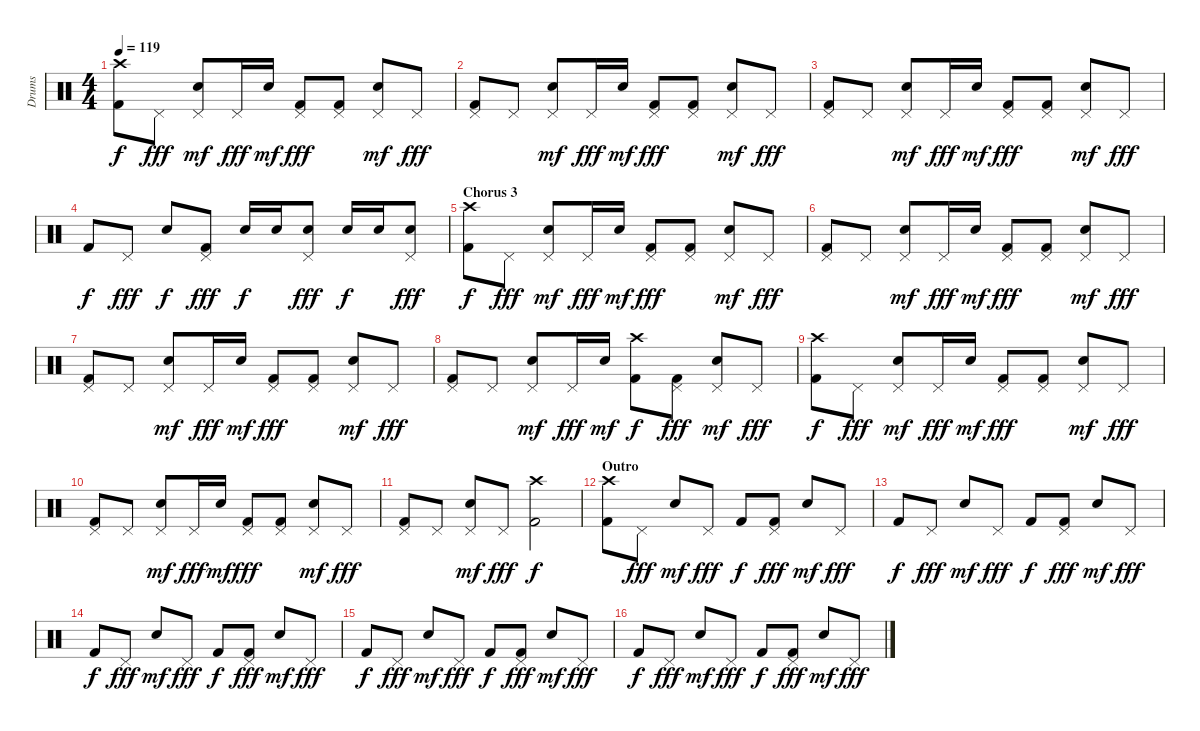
\track ("Drums" "Drums") {instrument percussion}
\staff {score}
\articulation defaults
\ts (4 4)
\tempo 119
\clef neutral
\ks c
("Crash high (hit)" "Kick (hit) 2").8{dy f} "Pedal Hi-Hat (hit)".8{dy fff} ("Pedal Hi-Hat (hit)" "Electric Snare (hit)").8{dy mf} "Pedal Hi-Hat (hit)".16{dy fff} "Electric Snare (hit)".16{dy mf} ("Pedal Hi-Hat (hit)" "Kick (hit) 2").8{dy fff} ("Pedal Hi-Hat (hit)" "Kick (hit) 2").8 ("Pedal Hi-Hat (hit)" "Electric Snare (hit)").8{dy mf} "Pedal Hi-Hat (hit)".8{dy fff} |
("Pedal Hi-Hat (hit)" "Kick (hit) 2").8 "Pedal Hi-Hat (hit)".8 ("Pedal Hi-Hat (hit)" "Electric Snare (hit)").8{dy mf} "Pedal Hi-Hat (hit)".16{dy fff} "Electric Snare (hit)".16{dy mf} ("Pedal Hi-Hat (hit)" "Kick (hit) 2").8{dy fff} ("Pedal Hi-Hat (hit)" "Kick (hit) 2").8 ("Pedal Hi-Hat (hit)" "Electric Snare (hit)").8{dy mf} "Pedal Hi-Hat (hit)".8{dy fff} |
("Pedal Hi-Hat (hit)" "Kick (hit) 2").8 "Pedal Hi-Hat (hit)".8 ("Pedal Hi-Hat (hit)" "Electric Snare (hit)").8{dy mf} "Pedal Hi-Hat (hit)".16{dy fff} "Electric Snare (hit)".16{dy mf} ("Pedal Hi-Hat (hit)" "Kick (hit) 2").8{dy fff} ("Pedal Hi-Hat (hit)" "Kick (hit) 2").8 ("Pedal Hi-Hat (hit)" "Electric Snare (hit)").8{dy mf} "Pedal Hi-Hat (hit)".8{dy fff} |
"Kick (hit) 2".8{dy f} "Pedal Hi-Hat (hit)".8{dy fff} "Electric Snare (hit)".8{dy f} ("Pedal Hi-Hat (hit)" "Kick (hit) 2").8{dy fff} "Electric Snare (hit)".16{dy f} "Electric Snare (hit)".16 ("Pedal Hi-Hat (hit)" "Electric Snare (hit)").8{dy fff} "Electric Snare (hit)".16{dy f} "Electric Snare (hit)".16 ("Pedal Hi-Hat (hit)" "Electric Snare (hit)").8{dy fff} |
\section ("" "Chorus 3")
("Crash high (hit)" "Kick (hit) 2").8{dy f} "Pedal Hi-Hat (hit)".8{dy fff} ("Pedal Hi-Hat (hit)" "Electric Snare (hit)").8{dy mf} "Pedal Hi-Hat (hit)".16{dy fff} "Electric Snare (hit)".16{dy mf} ("Pedal Hi-Hat (hit)" "Kick (hit) 2").8{dy fff} ("Pedal Hi-Hat (hit)" "Kick (hit) 2").8 ("Pedal Hi-Hat (hit)" "Electric Snare (hit)").8{dy mf} "Pedal Hi-Hat (hit)".8{dy fff} |
("Pedal Hi-Hat (hit)" "Kick (hit) 2").8 "Pedal Hi-Hat (hit)".8 ("Pedal Hi-Hat (hit)" "Electric Snare (hit)").8{dy mf} "Pedal Hi-Hat (hit)".16{dy fff} "Electric Snare (hit)".16{dy mf} ("Pedal Hi-Hat (hit)" "Kick (hit) 2").8{dy fff} ("Pedal Hi-Hat (hit)" "Kick (hit) 2").8 ("Pedal Hi-Hat (hit)" "Electric Snare (hit)").8{dy mf} "Pedal Hi-Hat (hit)".8{dy fff} |
("Pedal Hi-Hat (hit)" "Kick (hit) 2").8 "Pedal Hi-Hat (hit)".8 ("Pedal Hi-Hat (hit)" "Electric Snare (hit)").8{dy mf} "Pedal Hi-Hat (hit)".16{dy fff} "Electric Snare (hit)".16{dy mf} ("Pedal Hi-Hat (hit)" "Kick (hit) 2").8{dy fff} ("Pedal Hi-Hat (hit)" "Kick (hit) 2").8 ("Pedal Hi-Hat (hit)" "Electric Snare (hit)").8{dy mf} "Pedal Hi-Hat (hit)".8{dy fff} |
("Pedal Hi-Hat (hit)" "Kick (hit) 2").8 "Pedal Hi-Hat (hit)".8 ("Pedal Hi-Hat (hit)" "Electric Snare (hit)").8{dy mf} "Pedal Hi-Hat (hit)".16{dy fff} "Electric Snare (hit)".16{dy mf} ("Crash high (hit)" "Kick (hit) 2").8{dy f} ("Pedal Hi-Hat (hit)" "Kick (hit) 2").8{dy fff} ("Pedal Hi-Hat (hit)" "Electric Snare (hit)").8{dy mf} "Pedal Hi-Hat (hit)".8{dy fff} |
("Crash high (hit)" "Kick (hit) 2").8{dy f} "Pedal Hi-Hat (hit)".8{dy fff} ("Pedal Hi-Hat (hit)" "Electric Snare (hit)").8{dy mf} "Pedal Hi-Hat (hit)".16{dy fff} "Electric Snare (hit)".16{dy mf} ("Pedal Hi-Hat (hit)" "Kick (hit) 2").8{dy fff} ("Pedal Hi-Hat (hit)" "Kick (hit) 2").8 ("Pedal Hi-Hat (hit)" "Electric Snare (hit)").8{dy mf} "Pedal Hi-Hat (hit)".8{dy fff} |
("Pedal Hi-Hat (hit)" "Kick (hit) 2").8 "Pedal Hi-Hat (hit)".8 ("Pedal Hi-Hat (hit)" "Electric Snare (hit)").8{dy mf} "Pedal Hi-Hat (hit)".16{dy fff} "Electric Snare (hit)".16{dy mf} ("Pedal Hi-Hat (hit)" "Kick (hit) 2").8{dy fff} ("Pedal Hi-Hat (hit)" "Kick (hit) 2").8 ("Pedal Hi-Hat (hit)" "Electric Snare (hit)").8{dy mf} "Pedal Hi-Hat (hit)".8{dy fff} |
("Pedal Hi-Hat (hit)" "Kick (hit) 2").8 "Pedal Hi-Hat (hit)".8 ("Pedal Hi-Hat (hit)" "Electric Snare (hit)").8{dy mf} "Pedal Hi-Hat (hit)".8{dy fff} ("Crash high (hit)" "Kick (hit) 2").2{dy f} |
\section ("" "Outro")
("Crash high (hit)" "Kick (hit) 2").8 "Pedal Hi-Hat (hit)".8{dy fff} "Electric Snare (hit)".8{dy mf} "Pedal Hi-Hat (hit)".8{dy fff} "Kick (hit) 2".8{dy f} ("Pedal Hi-Hat (hit)" "Kick (hit) 2").8{dy fff} "Electric Snare (hit)".8{dy mf} "Pedal Hi-Hat (hit)".8{dy fff} |
"Kick (hit) 2".8{dy f} "Pedal Hi-Hat (hit)".8{dy fff} "Electric Snare (hit)".8{dy mf} "Pedal Hi-Hat (hit)".8{dy fff} "Kick (hit) 2".8{dy f} ("Pedal Hi-Hat (hit)" "Kick (hit) 2").8{dy fff} "Electric Snare (hit)".8{dy mf} "Pedal Hi-Hat (hit)".8{dy fff} |
"Kick (hit) 2".8{dy f} "Pedal Hi-Hat (hit)".8{dy fff} "Electric Snare (hit)".8{dy mf} "Pedal Hi-Hat (hit)".8{dy fff} "Kick (hit) 2".8{dy f} ("Pedal Hi-Hat (hit)" "Kick (hit) 2").8{dy fff} "Electric Snare (hit)".8{dy mf} "Pedal Hi-Hat (hit)".8{dy fff} |
"Kick (hit) 2".8{dy f} "Pedal Hi-Hat (hit)".8{dy fff} "Electric Snare (hit)".8{dy mf} "Pedal Hi-Hat (hit)".8{dy fff} "Kick (hit) 2".8{dy f} ("Pedal Hi-Hat (hit)" "Kick (hit) 2").8{dy fff} "Electric Snare (hit)".8{dy mf} "Pedal Hi-Hat (hit)".8{dy fff} |
"Kick (hit) 2".8{dy f} "Pedal Hi-Hat (hit)".8{dy fff} "Electric Snare (hit)".8{dy mf} "Pedal Hi-Hat (hit)".8{dy fff} "Kick (hit) 2".8{dy f} ("Pedal Hi-Hat (hit)" "Kick (hit) 2").8{dy fff} "Electric Snare (hit)".8{dy mf} "Pedal Hi-Hat (hit)".8{dy fff}
